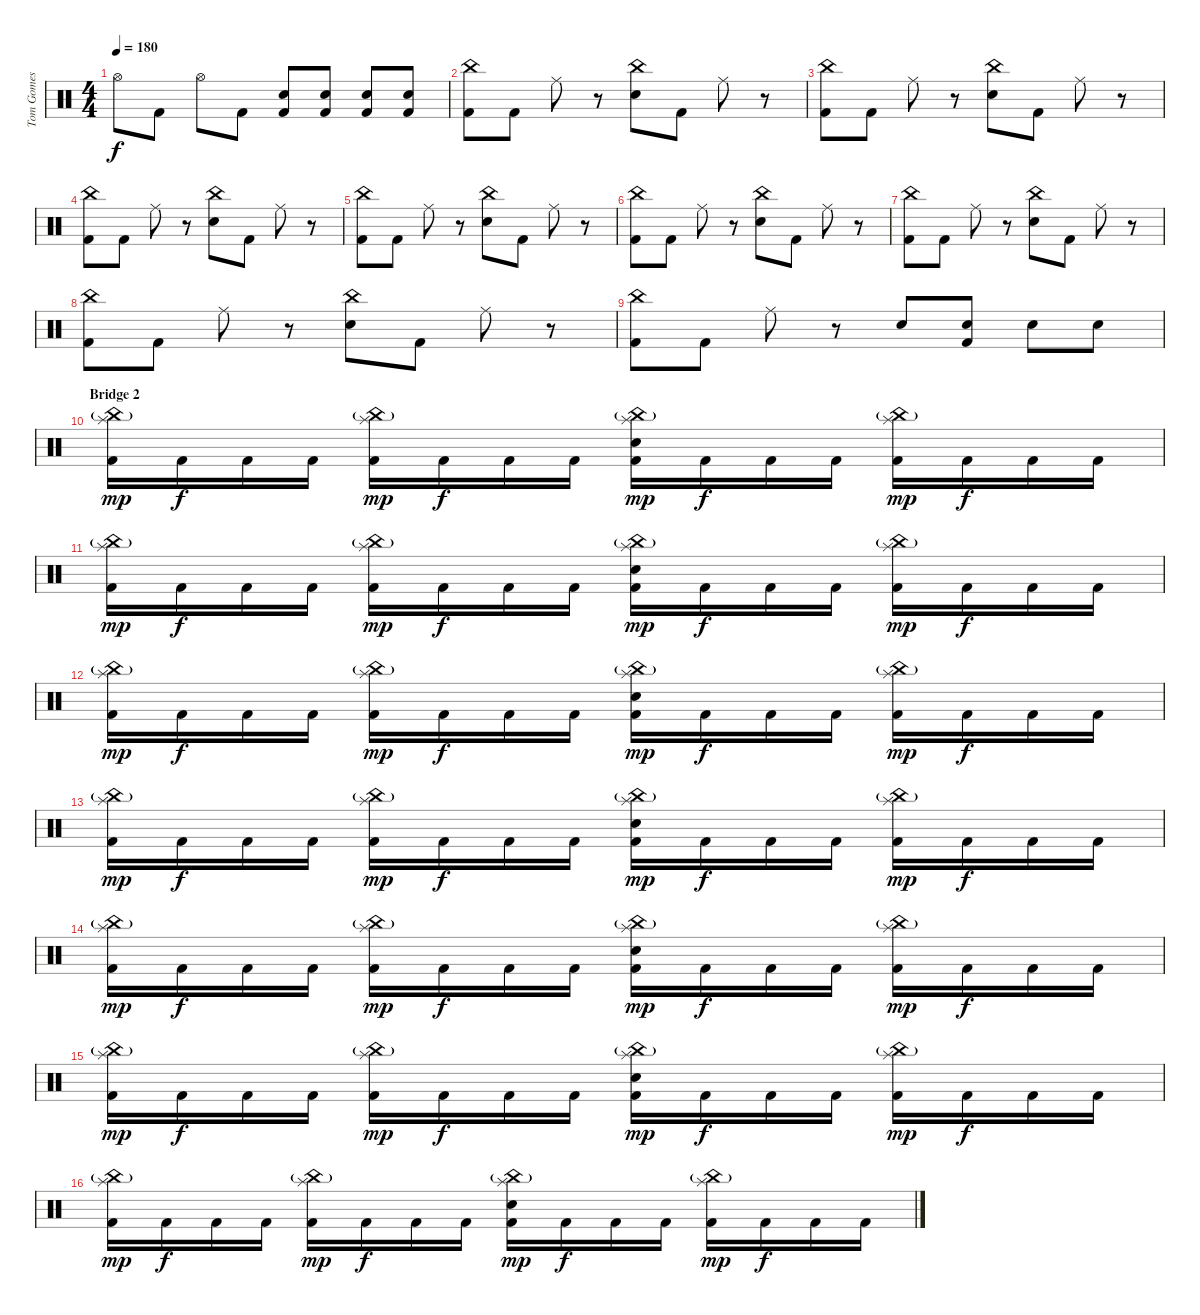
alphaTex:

\track ("Tom Gomes" "Tom Gomes") {instrument percussion}
\staff {score}
\articulation defaults
\ts (4 4)
\tempo 180
\clef neutral
\ks c "Hi-Hat (open)".8{dy f} "Kick (hit) 2".8 "Hi-Hat (open)".8 "Kick (hit) 2".8
("Snare (hit) 2" "Kick (hit) 2").8 ("Snare (hit) 2" "Kick (hit) 2").8 ("Snare (hit) 2" "Kick (hit) 2").8 ("Snare (hit) 2" "Kick (hit) 2").8 |
("China (hit)" "Kick (hit) 2").8 "Kick (hit) 2".8 "Ride (middle)".8 r.8 ("China (hit)" "Snare (hit) 2").8 "Kick (hit) 2".8 "Ride (middle)".8 r.8 |
("China (hit)" "Kick (hit) 2").8 "Kick (hit) 2".8 "Ride (middle)".8 r.8 ("China (hit)" "Snare (hit) 2").8 "Kick (hit) 2".8 "Ride (middle)".8 r.8 |
("China (hit)" "Kick (hit) 2").8 "Kick (hit) 2".8 "Ride (middle)".8 r.8 ("China (hit)" "Snare (hit) 2").8 "Kick (hit) 2".8 "Ride (middle)".8 r.8 |
("China (hit)" "Kick (hit) 2").8 "Kick (hit) 2".8 "Ride (middle)".8 r.8 ("China (hit)" "Snare (hit) 2").8 "Kick (hit) 2".8 "Ride (middle)".8 r.8 |
("China (hit)" "Kick (hit) 2").8 "Kick (hit) 2".8 "Ride (middle)".8 r.8 ("China (hit)" "Snare (hit) 2").8 "Kick (hit) 2".8 "Ride (middle)".8 r.8 |
("China (hit)" "Kick (hit) 2").8 "Kick (hit) 2".8 "Ride (middle)".8 r.8 ("China (hit)" "Snare (hit) 2").8 "Kick (hit) 2".8 "Ride (middle)".8 r.8 |
("China (hit)" "Kick (hit) 2").8 "Kick (hit) 2".8 "Ride (middle)".8 r.8 ("China (hit)" "Snare (hit) 2").8 "Kick (hit) 2".8 "Ride (middle)".8 r.8 |
("China (hit)" "Kick (hit) 2").8 "Kick (hit) 2".8 "Ride (middle)".8 r.8 "Snare (hit) 2".8 ("Snare (hit) 2" "Kick (hit) 2").8 "Snare (hit) 2".8 "Snare (hit) 2".8 |
\section ("" "Bridge 2")
("Splash (hit)" "China (hit)"{g} "Kick (hit) 2").16{dy mp} "Kick (hit) 2".16{dy f} "Kick (hit) 2".16 "Kick (hit) 2".16 ("Splash (hit)" "China (hit)"{g} "Kick (hit) 2").16{dy mp} "Kick (hit) 2".16{dy f} "Kick (hit) 2".16 "Kick (hit) 2".16 ("Splash (hit)" "China (hit)"{g} "Snare (hit) 2" "Kick (hit) 2").16{dy mp} "Kick (hit) 2".16{dy f} "Kick (hit) 2".16 "Kick (hit) 2".16 ("Splash (hit)" "China (hit)"{g} "Kick (hit) 2").16{dy mp} "Kick (hit) 2".16{dy f} "Kick (hit) 2".16 "Kick (hit) 2".16 |
("Splash (hit)" "China (hit)"{g} "Kick (hit) 2").16{dy mp} "Kick (hit) 2".16{dy f} "Kick (hit) 2".16 "Kick (hit) 2".16 ("Splash (hit)" "China (hit)"{g} "Kick (hit) 2").16{dy mp} "Kick (hit) 2".16{dy f} "Kick (hit) 2".16 "Kick (hit) 2".16 ("Splash (hit)" "China (hit)"{g} "Snare (hit) 2" "Kick (hit) 2").16{dy mp} "Kick (hit) 2".16{dy f} "Kick (hit) 2".16 "Kick (hit) 2".16 ("Splash (hit)" "China (hit)"{g} "Kick (hit) 2").16{dy mp} "Kick (hit) 2".16{dy f} "Kick (hit) 2".16 "Kick (hit) 2".16 |
("Splash (hit)" "China (hit)"{g} "Kick (hit) 2").16{dy mp} "Kick (hit) 2".16{dy f} "Kick (hit) 2".16 "Kick (hit) 2".16 ("Splash (hit)" "China (hit)"{g} "Kick (hit) 2").16{dy mp} "Kick (hit) 2".16{dy f} "Kick (hit) 2".16 "Kick (hit) 2".16 ("Splash (hit)" "China (hit)"{g} "Snare (hit) 2" "Kick (hit) 2").16{dy mp} "Kick (hit) 2".16{dy f} "Kick (hit) 2".16 "Kick (hit) 2".16 ("Splash (hit)" "China (hit)"{g} "Kick (hit) 2").16{dy mp} "Kick (hit) 2".16{dy f} "Kick (hit) 2".16 "Kick (hit) 2".16 |
("Splash (hit)" "China (hit)"{g} "Kick (hit) 2").16{dy mp} "Kick (hit) 2".16{dy f} "Kick (hit) 2".16 "Kick (hit) 2".16 ("Splash (hit)" "China (hit)"{g} "Kick (hit) 2").16{dy mp} "Kick (hit) 2".16{dy f} "Kick (hit) 2".16 "Kick (hit) 2".16 ("Splash (hit)" "China (hit)"{g} "Snare (hit) 2" "Kick (hit) 2").16{dy mp} "Kick (hit) 2".16{dy f} "Kick (hit) 2".16 "Kick (hit) 2".16 ("Splash (hit)" "China (hit)"{g} "Kick (hit) 2").16{dy mp} "Kick (hit) 2".16{dy f} "Kick (hit) 2".16 "Kick (hit) 2".16 |
("Splash (hit)" "China (hit)"{g} "Kick (hit) 2").16{dy mp} "Kick (hit) 2".16{dy f} "Kick (hit) 2".16 "Kick (hit) 2".16 ("Splash (hit)" "China (hit)"{g} "Kick (hit) 2").16{dy mp} "Kick (hit) 2".16{dy f} "Kick (hit) 2".16 "Kick (hit) 2".16 ("Splash (hit)" "China (hit)"{g} "Snare (hit) 2" "Kick (hit) 2").16{dy mp} "Kick (hit) 2".16{dy f} "Kick (hit) 2".16 "Kick (hit) 2".16 ("Splash (hit)" "China (hit)"{g} "Kick (hit) 2").16{dy mp} "Kick (hit) 2".16{dy f} "Kick (hit) 2".16 "Kick (hit) 2".16 |
("Splash (hit)" "China (hit)"{g} "Kick (hit) 2").16{dy mp} "Kick (hit) 2".16{dy f} "Kick (hit) 2".16 "Kick (hit) 2".16 ("Splash (hit)" "China (hit)"{g} "Kick (hit) 2").16{dy mp} "Kick (hit) 2".16{dy f} "Kick (hit) 2".16 "Kick (hit) 2".16 ("Splash (hit)" "China (hit)"{g} "Snare (hit) 2" "Kick (hit) 2").16{dy mp} "Kick (hit) 2".16{dy f} "Kick (hit) 2".16 "Kick (hit) 2".16 ("Splash (hit)" "China (hit)"{g} "Kick (hit) 2").16{dy mp} "Kick (hit) 2".16{dy f} "Kick (hit) 2".16 "Kick (hit) 2".16 |
("Splash (hit)" "China (hit)"{g} "Kick (hit) 2").16{dy mp} "Kick (hit) 2".16{dy f} "Kick (hit) 2".16 "Kick (hit) 2".16 ("Splash (hit)" "China (hit)"{g} "Kick (hit) 2").16{dy mp} "Kick (hit) 2".16{dy f} "Kick (hit) 2".16 "Kick (hit) 2".16 ("Splash (hit)" "China (hit)"{g} "Snare (hit) 2" "Kick (hit) 2").16{dy mp} "Kick (hit) 2".16{dy f} "Kick (hit) 2".16 "Kick (hit) 2".16 ("Splash (hit)" "China (hit)"{g} "Kick (hit) 2").16{dy mp} "Kick (hit) 2".16{dy f} "Kick (hit) 2".16 "Kick (hit) 2".16
